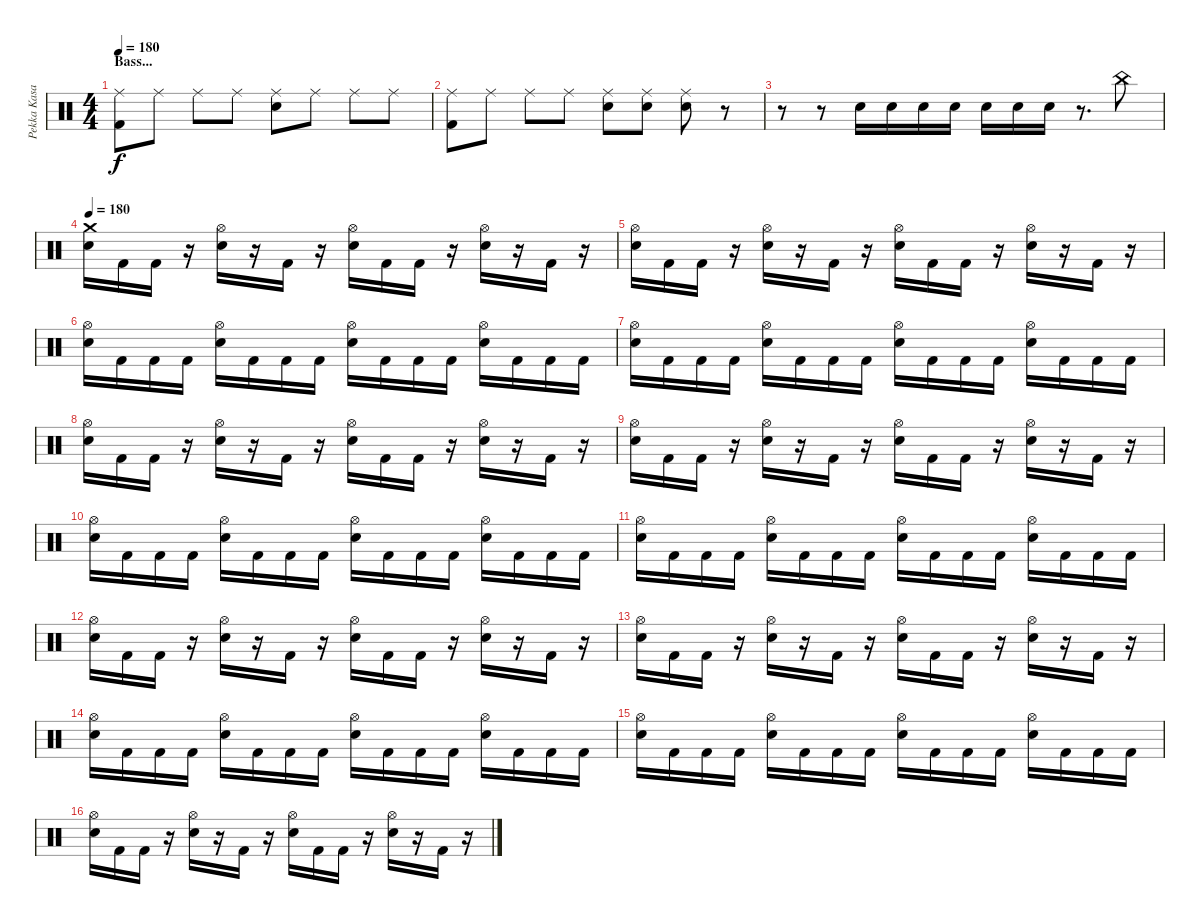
\track ("Pekka Kasari" "Pekka Kasa") {instrument percussion}
\staff {score}
\articulation defaults
\ts (4 4)
\section ("" "Bass...")
\tempo 180
\tempo 150
\tempo 180
\clef neutral
\ks c
("Ride (middle)" "Kick (hit) 2").8{dy f} "Ride (middle)".8 "Ride (middle)".8 "Ride (middle)".8 ("Ride (middle)" "Electric Snare (hit)").8 "Ride (middle)".8 "Ride (middle)".8 "Ride (middle)".8 |
("Ride (middle)" "Kick (hit) 2").8 "Ride (middle)".8 "Ride (middle)".8 "Ride (middle)".8 ("Ride (middle)" "Electric Snare (hit)").8 ("Ride (middle)" "Electric Snare (hit)").8 ("Ride (middle)" "Electric Snare (hit)").8 r.8 |
r.8 r.8 "Electric Snare (hit)".16 "Electric Snare (hit)".16 "Electric Snare (hit)".16 "Electric Snare (hit)".16 "Electric Snare (hit)".16 "Electric Snare (hit)".16 "Electric Snare (hit)".16 r.8{d} "China (hit)".8 |
\tempo 180
("Crash medium (hit)" "Electric Snare (hit)").16 "Kick (hit) 2".16 "Kick (hit) 2".16 r.16 ("Hi-Hat (open)" "Electric Snare (hit)").16 r.16 "Kick (hit) 2".16 r.16 ("Hi-Hat (open)" "Electric Snare (hit)").16 "Kick (hit) 2".16 "Kick (hit) 2".16 r.16 ("Hi-Hat (open)" "Electric Snare (hit)").16 r.16 "Kick (hit) 2".16 r.16 |
("Hi-Hat (open)" "Electric Snare (hit)").16 "Kick (hit) 2".16 "Kick (hit) 2".16 r.16 ("Hi-Hat (open)" "Electric Snare (hit)").16 r.16 "Kick (hit) 2".16 r.16 ("Hi-Hat (open)" "Electric Snare (hit)").16 "Kick (hit) 2".16 "Kick (hit) 2".16 r.16 ("Hi-Hat (open)" "Electric Snare (hit)").16 r.16 "Kick (hit) 2".16 r.16 |
("Hi-Hat (open)" "Electric Snare (hit)").16 "Kick (hit) 2".16 "Kick (hit) 2".16 "Kick (hit) 2".16 ("Hi-Hat (open)" "Electric Snare (hit)").16 "Kick (hit) 2".16 "Kick (hit) 2".16 "Kick (hit) 2".16 ("Hi-Hat (open)" "Electric Snare (hit)").16 "Kick (hit) 2".16 "Kick (hit) 2".16 "Kick (hit) 2".16 ("Hi-Hat (open)" "Electric Snare (hit)").16 "Kick (hit) 2".16 "Kick (hit) 2".16 "Kick (hit) 2".16 |
("Hi-Hat (open)" "Electric Snare (hit)").16 "Kick (hit) 2".16 "Kick (hit) 2".16 "Kick (hit) 2".16 ("Hi-Hat (open)" "Electric Snare (hit)").16 "Kick (hit) 2".16 "Kick (hit) 2".16 "Kick (hit) 2".16 ("Hi-Hat (open)" "Electric Snare (hit)").16 "Kick (hit) 2".16 "Kick (hit) 2".16 "Kick (hit) 2".16 ("Hi-Hat (open)" "Electric Snare (hit)").16 "Kick (hit) 2".16 "Kick (hit) 2".16 "Kick (hit) 2".16 |
("Hi-Hat (open)" "Electric Snare (hit)").16 "Kick (hit) 2".16 "Kick (hit) 2".16 r.16 ("Hi-Hat (open)" "Electric Snare (hit)").16 r.16 "Kick (hit) 2".16 r.16 ("Hi-Hat (open)" "Electric Snare (hit)").16 "Kick (hit) 2".16 "Kick (hit) 2".16 r.16 ("Hi-Hat (open)" "Electric Snare (hit)").16 r.16 "Kick (hit) 2".16 r.16 |
("Hi-Hat (open)" "Electric Snare (hit)").16 "Kick (hit) 2".16 "Kick (hit) 2".16 r.16 ("Hi-Hat (open)" "Electric Snare (hit)").16 r.16 "Kick (hit) 2".16 r.16 ("Hi-Hat (open)" "Electric Snare (hit)").16 "Kick (hit) 2".16 "Kick (hit) 2".16 r.16 ("Hi-Hat (open)" "Electric Snare (hit)").16 r.16 "Kick (hit) 2".16 r.16 |
("Hi-Hat (open)" "Electric Snare (hit)").16 "Kick (hit) 2".16 "Kick (hit) 2".16 "Kick (hit) 2".16 ("Hi-Hat (open)" "Electric Snare (hit)").16 "Kick (hit) 2".16 "Kick (hit) 2".16 "Kick (hit) 2".16 ("Hi-Hat (open)" "Electric Snare (hit)").16 "Kick (hit) 2".16 "Kick (hit) 2".16 "Kick (hit) 2".16 ("Hi-Hat (open)" "Electric Snare (hit)").16 "Kick (hit) 2".16 "Kick (hit) 2".16 "Kick (hit) 2".16 |
("Hi-Hat (open)" "Electric Snare (hit)").16 "Kick (hit) 2".16 "Kick (hit) 2".16 "Kick (hit) 2".16 ("Hi-Hat (open)" "Electric Snare (hit)").16 "Kick (hit) 2".16 "Kick (hit) 2".16 "Kick (hit) 2".16 ("Hi-Hat (open)" "Electric Snare (hit)").16 "Kick (hit) 2".16 "Kick (hit) 2".16 "Kick (hit) 2".16 ("Hi-Hat (open)" "Electric Snare (hit)").16 "Kick (hit) 2".16 "Kick (hit) 2".16 "Kick (hit) 2".16 |
\section ("" "")
("Hi-Hat (open)" "Electric Snare (hit)").16 "Kick (hit) 2".16 "Kick (hit) 2".16 r.16 ("Hi-Hat (open)" "Electric Snare (hit)").16 r.16 "Kick (hit) 2".16 r.16 ("Hi-Hat (open)" "Electric Snare (hit)").16 "Kick (hit) 2".16 "Kick (hit) 2".16 r.16 ("Hi-Hat (open)" "Electric Snare (hit)").16 r.16 "Kick (hit) 2".16 r.16 |
("Hi-Hat (open)" "Electric Snare (hit)").16 "Kick (hit) 2".16 "Kick (hit) 2".16 r.16 ("Hi-Hat (open)" "Electric Snare (hit)").16 r.16 "Kick (hit) 2".16 r.16 ("Hi-Hat (open)" "Electric Snare (hit)").16 "Kick (hit) 2".16 "Kick (hit) 2".16 r.16 ("Hi-Hat (open)" "Electric Snare (hit)").16 r.16 "Kick (hit) 2".16 r.16 |
("Hi-Hat (open)" "Electric Snare (hit)").16 "Kick (hit) 2".16 "Kick (hit) 2".16 "Kick (hit) 2".16 ("Hi-Hat (open)" "Electric Snare (hit)").16 "Kick (hit) 2".16 "Kick (hit) 2".16 "Kick (hit) 2".16 ("Hi-Hat (open)" "Electric Snare (hit)").16 "Kick (hit) 2".16 "Kick (hit) 2".16 "Kick (hit) 2".16 ("Hi-Hat (open)" "Electric Snare (hit)").16 "Kick (hit) 2".16 "Kick (hit) 2".16 "Kick (hit) 2".16 |
("Hi-Hat (open)" "Electric Snare (hit)").16 "Kick (hit) 2".16 "Kick (hit) 2".16 "Kick (hit) 2".16 ("Hi-Hat (open)" "Electric Snare (hit)").16 "Kick (hit) 2".16 "Kick (hit) 2".16 "Kick (hit) 2".16 ("Hi-Hat (open)" "Electric Snare (hit)").16 "Kick (hit) 2".16 "Kick (hit) 2".16 "Kick (hit) 2".16 ("Hi-Hat (open)" "Electric Snare (hit)").16 "Kick (hit) 2".16 "Kick (hit) 2".16 "Kick (hit) 2".16 |
("Hi-Hat (open)" "Electric Snare (hit)").16 "Kick (hit) 2".16 "Kick (hit) 2".16 r.16 ("Hi-Hat (open)" "Electric Snare (hit)").16 r.16 "Kick (hit) 2".16 r.16 ("Hi-Hat (open)" "Electric Snare (hit)").16 "Kick (hit) 2".16 "Kick (hit) 2".16 r.16 ("Hi-Hat (open)" "Electric Snare (hit)").16 r.16 "Kick (hit) 2".16 r.16
